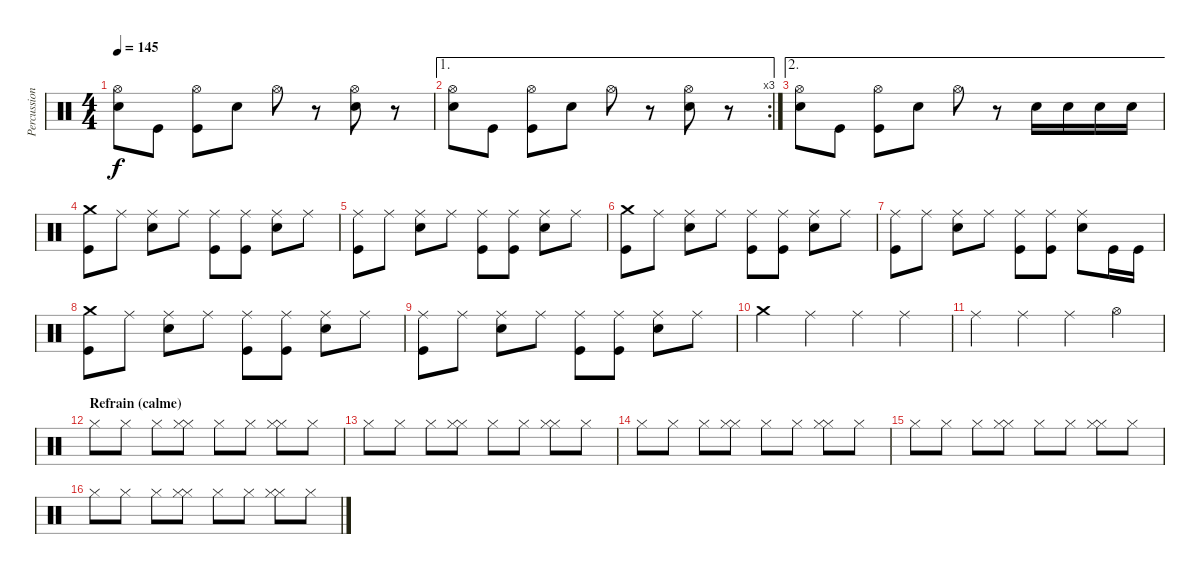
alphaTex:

\track ("Percussions" "Percussion") {instrument percussion}
\staff {score}
\articulation defaults
\ts (4 4)
\tempo 145
\clef neutral
\ks c
("Hi-Hat (open)" "Electric Snare (hit)").8{dy f} "Kick (hit)".8 ("Hi-Hat (open)" "Kick (hit)").8 "Electric Snare (hit)".8 "Hi-Hat (open)".8 r.8 ("Hi-Hat (open)" "Electric Snare (hit)").8 r.8 |
\ae 1
\rc 3
("Hi-Hat (open)" "Electric Snare (hit)").8 "Kick (hit)".8 ("Hi-Hat (open)" "Kick (hit)").8 "Electric Snare (hit)".8 "Hi-Hat (open)".8 r.8 ("Hi-Hat (open)" "Electric Snare (hit)").8 r.8 |
\ae 2
("Hi-Hat (open)" "Electric Snare (hit)").8 "Kick (hit)".8 ("Hi-Hat (open)" "Kick (hit)").8 "Electric Snare (hit)".8 "Hi-Hat (open)".8 r.8 "Electric Snare (hit)".16 "Electric Snare (hit)".16 "Electric Snare (hit)".16 "Electric Snare (hit)".16 |
("Crash medium (hit)" "Kick (hit)").8 "Ride (middle)".8 ("Ride (middle)" "Electric Snare (hit)").8 "Ride (middle)".8 ("Ride (middle)" "Kick (hit)").8 ("Ride (middle)" "Kick (hit)").8 ("Ride (middle)" "Electric Snare (hit)").8 "Ride (middle)".8 |
("Ride (middle)" "Kick (hit)").8 "Ride (middle)".8 ("Ride (middle)" "Electric Snare (hit)").8 "Ride (middle)".8 ("Ride (middle)" "Kick (hit)").8 ("Ride (middle)" "Kick (hit)").8 ("Ride (middle)" "Electric Snare (hit)").8 "Ride (middle)".8 |
("Crash medium (hit)" "Kick (hit)").8 "Ride (middle)".8 ("Ride (middle)" "Electric Snare (hit)").8 "Ride (middle)".8 ("Ride (middle)" "Kick (hit)").8 ("Ride (middle)" "Kick (hit)").8 ("Ride (middle)" "Electric Snare (hit)").8 "Ride (middle)".8 |
("Ride (middle)" "Kick (hit)").8 "Ride (middle)".8 ("Ride (middle)" "Electric Snare (hit)").8 "Ride (middle)".8 ("Ride (middle)" "Kick (hit)").8 ("Ride (middle)" "Kick (hit)").8 ("Ride (middle)" "Electric Snare (hit)").8 "Kick (hit)".16 "Kick (hit)".16 |
("Crash medium (hit)" "Kick (hit)").8 "Ride (middle)".8 ("Ride (middle)" "Electric Snare (hit)").8 "Ride (middle)".8 ("Ride (middle)" "Kick (hit)").8 ("Ride (middle)" "Kick (hit)").8 ("Ride (middle)" "Electric Snare (hit)").8 "Ride (middle)".8 |
("Ride (middle)" "Kick (hit)").8 "Ride (middle)".8 ("Ride (middle)" "Electric Snare (hit)").8 "Ride (middle)".8 ("Ride (middle)" "Kick (hit)").8 ("Ride (middle)" "Kick (hit)").8 ("Ride (middle)" "Electric Snare (hit)").8 "Ride (middle)".8 |
"Crash medium (hit)".4 "Ride (middle)".4 "Ride (middle)".4 "Ride (middle)".4 |
"Ride (middle)".4 "Ride (middle)".4 "Ride (middle)".4 "Hi-Hat (open)".4 |
\section ("" "Refrain (calme)")
"Hi-Hat (closed)".8 "Hi-Hat (closed)".8 "Hi-Hat (closed)".8 ("Hi-Hat (closed)" "Hi-Hat (closed)").8 "Hi-Hat (closed)".8 "Hi-Hat (closed)".8 ("Hi-Hat (closed)" "Hi-Hat (closed)").8 "Hi-Hat (closed)".8 |
"Hi-Hat (closed)".8 "Hi-Hat (closed)".8 "Hi-Hat (closed)".8 ("Hi-Hat (closed)" "Hi-Hat (closed)").8 "Hi-Hat (closed)".8 "Hi-Hat (closed)".8 ("Hi-Hat (closed)" "Hi-Hat (closed)").8 "Hi-Hat (closed)".8 |
"Hi-Hat (closed)".8 "Hi-Hat (closed)".8 "Hi-Hat (closed)".8 ("Hi-Hat (closed)" "Hi-Hat (closed)").8 "Hi-Hat (closed)".8 "Hi-Hat (closed)".8 ("Hi-Hat (closed)" "Hi-Hat (closed)").8 "Hi-Hat (closed)".8 |
"Hi-Hat (closed)".8 "Hi-Hat (closed)".8 "Hi-Hat (closed)".8 ("Hi-Hat (closed)" "Hi-Hat (closed)").8 "Hi-Hat (closed)".8 "Hi-Hat (closed)".8 ("Hi-Hat (closed)" "Hi-Hat (closed)").8 "Hi-Hat (closed)".8 |
"Hi-Hat (closed)".8 "Hi-Hat (closed)".8 "Hi-Hat (closed)".8 ("Hi-Hat (closed)" "Hi-Hat (closed)").8 "Hi-Hat (closed)".8 "Hi-Hat (closed)".8 ("Hi-Hat (closed)" "Hi-Hat (closed)").8 "Hi-Hat (closed)".8
